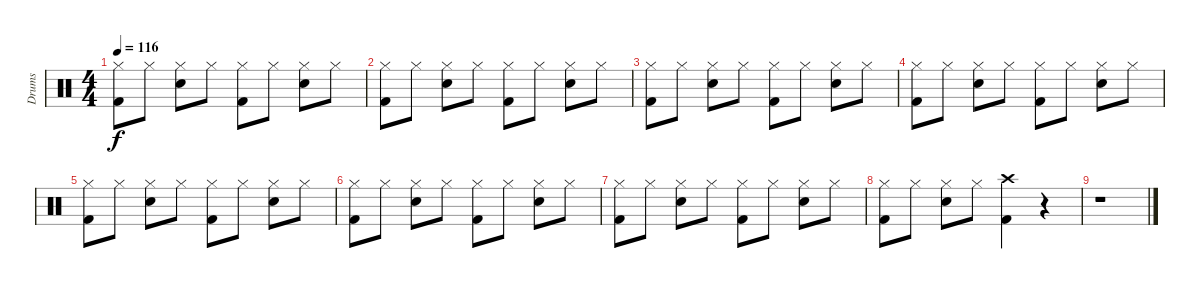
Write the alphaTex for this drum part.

\track ("Drums" "Drums") {instrument percussion}
\staff {score}
\articulation defaults
\ts (4 4)
\tempo 116
\clef neutral
\ks c
("Hi-Hat (closed)" "Kick (hit) 2").8{dy f} "Hi-Hat (closed)".8 ("Hi-Hat (closed)" "Snare (hit) 2").8 "Hi-Hat (closed)".8 ("Hi-Hat (closed)" "Kick (hit) 2").8 "Hi-Hat (closed)".8 ("Hi-Hat (closed)" "Snare (hit) 2").8 "Hi-Hat (closed)".8 |
("Hi-Hat (closed)" "Kick (hit) 2").8 "Hi-Hat (closed)".8 ("Hi-Hat (closed)" "Snare (hit) 2").8 "Hi-Hat (closed)".8 ("Hi-Hat (closed)" "Kick (hit) 2").8 "Hi-Hat (closed)".8 ("Hi-Hat (closed)" "Snare (hit) 2").8 "Hi-Hat (closed)".8 |
("Hi-Hat (closed)" "Kick (hit) 2").8 "Hi-Hat (closed)".8 ("Hi-Hat (closed)" "Snare (hit) 2").8 "Hi-Hat (closed)".8 ("Hi-Hat (closed)" "Kick (hit) 2").8 "Hi-Hat (closed)".8 ("Hi-Hat (closed)" "Snare (hit) 2").8 "Hi-Hat (closed)".8 |
("Hi-Hat (closed)" "Kick (hit) 2").8 "Hi-Hat (closed)".8 ("Hi-Hat (closed)" "Snare (hit) 2").8 "Hi-Hat (closed)".8 ("Hi-Hat (closed)" "Kick (hit) 2").8 "Hi-Hat (closed)".8 ("Hi-Hat (closed)" "Snare (hit) 2").8 "Hi-Hat (closed)".8 |
("Hi-Hat (closed)" "Kick (hit) 2").8 "Hi-Hat (closed)".8 ("Hi-Hat (closed)" "Snare (hit) 2").8 "Hi-Hat (closed)".8 ("Hi-Hat (closed)" "Kick (hit) 2").8 "Hi-Hat (closed)".8 ("Hi-Hat (closed)" "Snare (hit) 2").8 "Hi-Hat (closed)".8 |
("Hi-Hat (closed)" "Kick (hit) 2").8 "Hi-Hat (closed)".8 ("Hi-Hat (closed)" "Snare (hit) 2").8 "Hi-Hat (closed)".8 ("Hi-Hat (closed)" "Kick (hit) 2").8 "Hi-Hat (closed)".8 ("Hi-Hat (closed)" "Snare (hit) 2").8 "Hi-Hat (closed)".8 |
("Hi-Hat (closed)" "Kick (hit) 2").8 "Hi-Hat (closed)".8 ("Hi-Hat (closed)" "Snare (hit) 2").8 "Hi-Hat (closed)".8 ("Hi-Hat (closed)" "Kick (hit) 2").8 "Hi-Hat (closed)".8 ("Hi-Hat (closed)" "Snare (hit) 2").8 "Hi-Hat (closed)".8 |
("Hi-Hat (closed)" "Kick (hit) 2").8 "Hi-Hat (closed)".8 ("Hi-Hat (closed)" "Snare (hit) 2").8 "Hi-Hat (closed)".8 ("Crash high (hit)" "Kick (hit) 2").4 r.4 |
r.1
